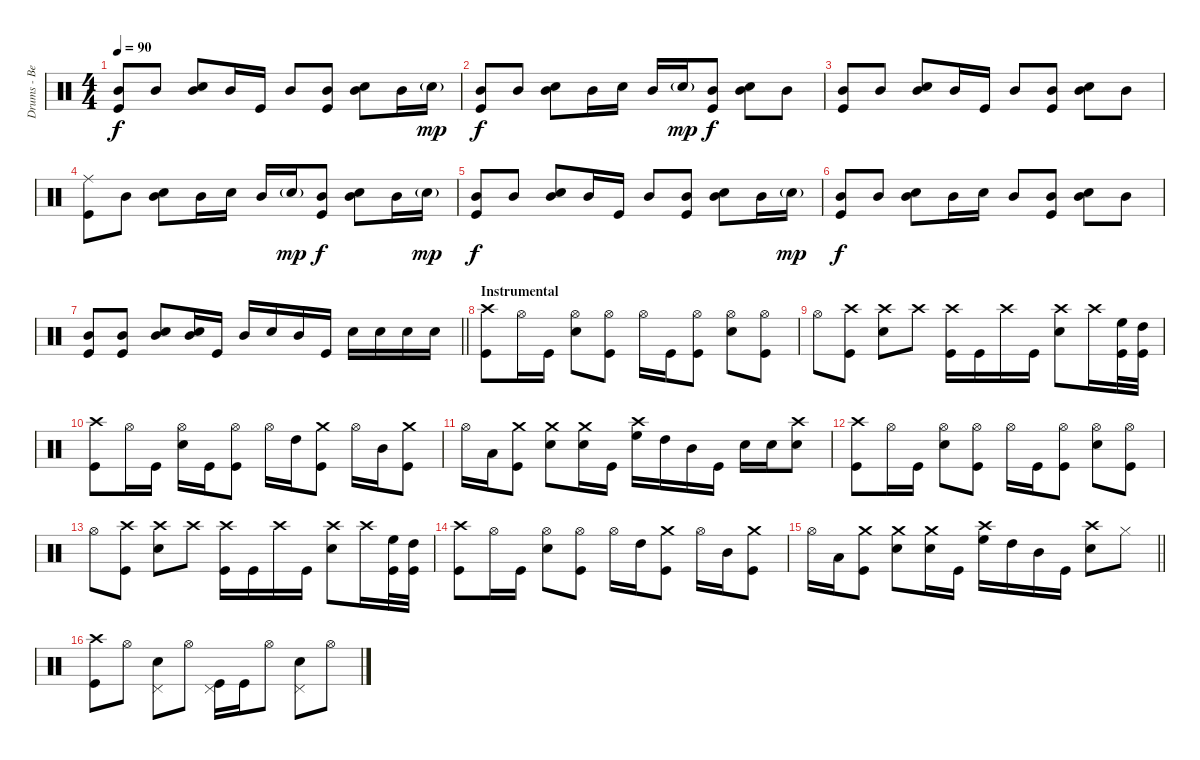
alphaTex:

\track ("Drums - Ben Johnston" "Drums - Be") {instrument percussion}
\staff {score}
\articulation defaults
\ts (4 4)
\tempo 90
\clef neutral
\ks c
("Mid Tom (hit)" "Kick (hit)").8{dy f} "Mid Tom (hit)".8 ("Mid Tom (hit)" "Snare (hit) 2").8 "Mid Tom (hit)".16 "Kick (hit)".16 "Mid Tom (hit)".8 ("Mid Tom (hit)" "Kick (hit)").8 ("Mid Tom (hit)" "Snare (hit) 2").8 "Mid Tom (hit)".16 "Snare (hit) 2"{g}.16{dy mp} |
("Mid Tom (hit)" "Kick (hit)").8{dy f} "Mid Tom (hit)".8 ("Mid Tom (hit)" "Snare (hit) 2").8 "Mid Tom (hit)".16 "Snare (hit) 2".16 "Mid Tom (hit)".16 "Snare (hit) 2"{g}.16{dy mp} ("Mid Tom (hit)" "Kick (hit)").8{dy f} ("Mid Tom (hit)" "Snare (hit) 2").8 "Mid Tom (hit)".8 |
("Mid Tom (hit)" "Kick (hit)").8 "Mid Tom (hit)".8 ("Mid Tom (hit)" "Snare (hit) 2").8 "Mid Tom (hit)".16 "Kick (hit)".16 "Mid Tom (hit)".8 ("Mid Tom (hit)" "Kick (hit)").8 ("Mid Tom (hit)" "Snare (hit) 2").8 "Mid Tom (hit)".8 |
("Ride (middle)" "Kick (hit)").8 "Mid Tom (hit)".8 ("Mid Tom (hit)" "Snare (hit) 2").8 "Mid Tom (hit)".16 "Snare (hit) 2".16 "Mid Tom (hit)".16 "Snare (hit) 2"{g}.16{dy mp} ("Mid Tom (hit)" "Kick (hit)").8{dy f} ("Mid Tom (hit)" "Snare (hit) 2").8 "Mid Tom (hit)".16 "Snare (hit) 2"{g}.16{dy mp} |
("Mid Tom (hit)" "Kick (hit)").8{dy f} "Mid Tom (hit)".8 ("Mid Tom (hit)" "Snare (hit) 2").8 "Mid Tom (hit)".16 "Kick (hit)".16 "Mid Tom (hit)".8 ("Mid Tom (hit)" "Kick (hit)").8 ("Mid Tom (hit)" "Snare (hit) 2").8 "Mid Tom (hit)".16 "Snare (hit) 2"{g}.16{dy mp} |
("Mid Tom (hit)" "Kick (hit)").8{dy f} "Mid Tom (hit)".8 ("Mid Tom (hit)" "Snare (hit) 2").8 "Mid Tom (hit)".16 "Snare (hit) 2".16 "Mid Tom (hit)".8 ("Mid Tom (hit)" "Kick (hit)").8 ("Mid Tom (hit)" "Snare (hit) 2").8 "Mid Tom (hit)".8 |
\barLineRight lightlight
("Mid Tom (hit)" "Kick (hit)").8 ("Mid Tom (hit)" "Kick (hit)").8 ("Mid Tom (hit)" "Snare (hit) 2").8 ("Mid Tom (hit)" "Snare (hit) 2").16 "Kick (hit)".16 "Mid Tom (hit)".16 "Snare (hit) 2".16 "Mid Tom (hit)".16 "Kick (hit)".16 "Snare (hit) 2".16 "Snare (hit) 2".16 "Snare (hit) 2".16 "Snare (hit) 2".16 |
\section ("" "Instrumental")
("Crash high (hit)" "Kick (hit)").8 "Hi-Hat (open)".16 "Kick (hit)".16 ("Hi-Hat (open)" "Snare (hit) 2").8 ("Hi-Hat (open)" "Kick (hit)").8 "Hi-Hat (open)".16 "Kick (hit)".16 ("Hi-Hat (open)" "Kick (hit)").8 ("Hi-Hat (open)" "Snare (hit) 2").8 ("Hi-Hat (open)" "Kick (hit)").8 |
"Hi-Hat (open)".8 ("Crash high (hit)" "Kick (hit)").8 ("Crash high (hit)" "Snare (hit) 2").8 "Crash high (hit)".8 ("Crash high (hit)" "Kick (hit)").16 "Kick (hit)".16 "Crash high (hit)".16 "Kick (hit)".16 ("Crash high (hit)" "Snare (hit) 2").8 "Crash high (hit)".16 ("High Floor Tom (hit)" "Kick (hit)").32 ("High Tom (hit)" "Kick (hit)").32 |
("Crash high (hit)" "Kick (hit)").8 "Hi-Hat (open)".16 "Kick (hit)".16 ("Hi-Hat (open)" "Snare (hit) 2").16 "Kick (hit)".16 ("Hi-Hat (open)" "Kick (hit)").8 "Hi-Hat (open)".16 "High Tom (hit)".16 ("Crash medium (hit)" "Kick (hit)").8 "Hi-Hat (open)".16 "Mid Tom (hit)".16 ("Crash medium (hit)" "Kick (hit)").8 |
"Hi-Hat (open)".16 "Low Tom (hit)".16 ("Crash medium (hit)" "Kick (hit)").8 ("Crash medium (hit)" "Snare (hit) 2").8 ("Crash medium (hit)" "Snare (hit) 2").16 "Kick (hit)".16 ("Crash high (hit)" "High Floor Tom (hit)").16 "High Tom (hit)".16 "Mid Tom (hit)".16 "Kick (hit)".16 "Snare (hit) 2".16 "Snare (hit) 2".16 ("Crash high (hit)" "Snare (hit) 2").8 |
("Crash high (hit)" "Kick (hit)").8 "Hi-Hat (open)".16 "Kick (hit)".16 ("Hi-Hat (open)" "Snare (hit) 2").8 ("Hi-Hat (open)" "Kick (hit)").8 "Hi-Hat (open)".16 "Kick (hit)".16 ("Hi-Hat (open)" "Kick (hit)").8 ("Hi-Hat (open)" "Snare (hit) 2").8 ("Hi-Hat (open)" "Kick (hit)").8 |
"Hi-Hat (open)".8 ("Crash high (hit)" "Kick (hit)").8 ("Crash high (hit)" "Snare (hit) 2").8 "Crash high (hit)".8 ("Crash high (hit)" "Kick (hit)").16 "Kick (hit)".16 "Crash high (hit)".16 "Kick (hit)".16 ("Crash high (hit)" "Snare (hit) 2").8 "Crash high (hit)".16 ("High Floor Tom (hit)" "Kick (hit)").32 ("High Tom (hit)" "Kick (hit)").32 |
("Crash high (hit)" "Kick (hit)").8 "Hi-Hat (open)".16 "Kick (hit)".16 ("Hi-Hat (open)" "Snare (hit) 2").8 ("Hi-Hat (open)" "Kick (hit)").8 "Hi-Hat (open)".16 "High Tom (hit)".16 ("Crash medium (hit)" "Kick (hit)").8 "Hi-Hat (open)".16 "Mid Tom (hit)".16 ("Crash medium (hit)" "Kick (hit)").8 |
\barLineRight lightlight "Hi-Hat (open)".16 "Low Tom (hit)".16
("Crash medium (hit)" "Kick (hit)").8 ("Crash medium (hit)" "Snare (hit) 2").8 ("Crash medium (hit)" "Snare (hit) 2").16 "Kick (hit)".16 ("Crash high (hit)" "High Floor Tom (hit)").16 "High Tom (hit)".16 "Mid Tom (hit)".16 "Kick (hit)".16 ("Crash high (hit)" "Snare (hit) 2").8 "Hi-Hat (closed)".8 |
("Crash high (hit)" "Kick (hit)").8 "Hi-Hat (open)".8 ("Pedal Hi-Hat (hit)" "Snare (hit) 2").8 "Hi-Hat (open)".8 ("Pedal Hi-Hat (hit)" "Kick (hit)").16 "Kick (hit)".16 "Hi-Hat (open)".8 ("Pedal Hi-Hat (hit)" "Snare (hit) 2").8 "Hi-Hat (open)".8
